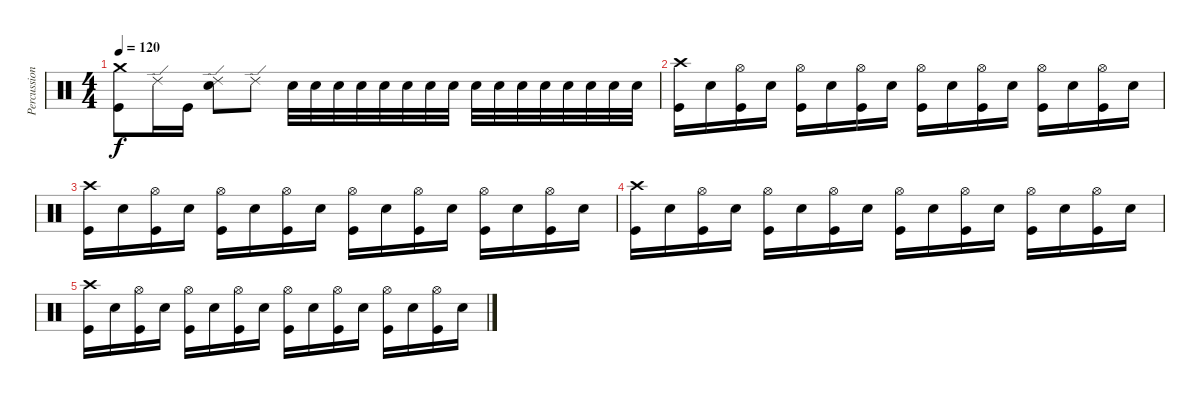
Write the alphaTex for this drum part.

\track ("Percussion" "Percussion") {instrument percussion}
\staff {score}
\articulation defaults
\ts (4 4)
\tempo 120
\clef neutral
\ks c
("Crash medium (hit)" "Kick (hit)").8{dy f} "Ride (edge) 2".16 "Kick (hit)".16 ("Ride (edge) 2" "Electric Snare (hit)").8 "Ride (edge) 2".8 "Electric Snare (hit)".32 "Electric Snare (hit)".32 "Electric Snare (hit)".32 "Electric Snare (hit)".32 "Electric Snare (hit)".32 "Electric Snare (hit)".32 "Electric Snare (hit)".32 "Electric Snare (hit)".32 "Electric Snare (hit)".32 "Electric Snare (hit)".32 "Electric Snare (hit)".32 "Electric Snare (hit)".32 "Electric Snare (hit)".32 "Electric Snare (hit)".32 "Electric Snare (hit)".32 "Electric Snare (hit)".32 |
("Crash high (hit)" "Kick (hit)").16 "Electric Snare (hit)".16 ("Hi-Hat (open)" "Kick (hit)").16 "Electric Snare (hit)".16 ("Hi-Hat (open)" "Kick (hit)").16 "Electric Snare (hit)".16 ("Hi-Hat (open)" "Kick (hit)").16 "Electric Snare (hit)".16 ("Hi-Hat (open)" "Kick (hit)").16 "Electric Snare (hit)".16 ("Hi-Hat (open)" "Kick (hit)").16 "Electric Snare (hit)".16 ("Hi-Hat (open)" "Kick (hit)").16 "Electric Snare (hit)".16 ("Hi-Hat (open)" "Kick (hit)").16 "Electric Snare (hit)".16 |
("Crash high (hit)" "Kick (hit)").16 "Electric Snare (hit)".16 ("Hi-Hat (open)" "Kick (hit)").16 "Electric Snare (hit)".16 ("Hi-Hat (open)" "Kick (hit)").16 "Electric Snare (hit)".16 ("Hi-Hat (open)" "Kick (hit)").16 "Electric Snare (hit)".16 ("Hi-Hat (open)" "Kick (hit)").16 "Electric Snare (hit)".16 ("Hi-Hat (open)" "Kick (hit)").16 "Electric Snare (hit)".16 ("Hi-Hat (open)" "Kick (hit)").16 "Electric Snare (hit)".16 ("Hi-Hat (open)" "Kick (hit)").16 "Electric Snare (hit)".16 |
("Crash high (hit)" "Kick (hit)").16 "Electric Snare (hit)".16 ("Hi-Hat (open)" "Kick (hit)").16 "Electric Snare (hit)".16 ("Hi-Hat (open)" "Kick (hit)").16 "Electric Snare (hit)".16 ("Hi-Hat (open)" "Kick (hit)").16 "Electric Snare (hit)".16 ("Hi-Hat (open)" "Kick (hit)").16 "Electric Snare (hit)".16 ("Hi-Hat (open)" "Kick (hit)").16 "Electric Snare (hit)".16 ("Hi-Hat (open)" "Kick (hit)").16 "Electric Snare (hit)".16 ("Hi-Hat (open)" "Kick (hit)").16 "Electric Snare (hit)".16 |
("Crash high (hit)" "Kick (hit)").16 "Electric Snare (hit)".16 ("Hi-Hat (open)" "Kick (hit)").16 "Electric Snare (hit)".16 ("Hi-Hat (open)" "Kick (hit)").16 "Electric Snare (hit)".16 ("Hi-Hat (open)" "Kick (hit)").16 "Electric Snare (hit)".16 ("Hi-Hat (open)" "Kick (hit)").16 "Electric Snare (hit)".16 ("Hi-Hat (open)" "Kick (hit)").16 "Electric Snare (hit)".16 ("Hi-Hat (open)" "Kick (hit)").16 "Electric Snare (hit)".16 ("Hi-Hat (open)" "Kick (hit)").16 "Electric Snare (hit)".16
